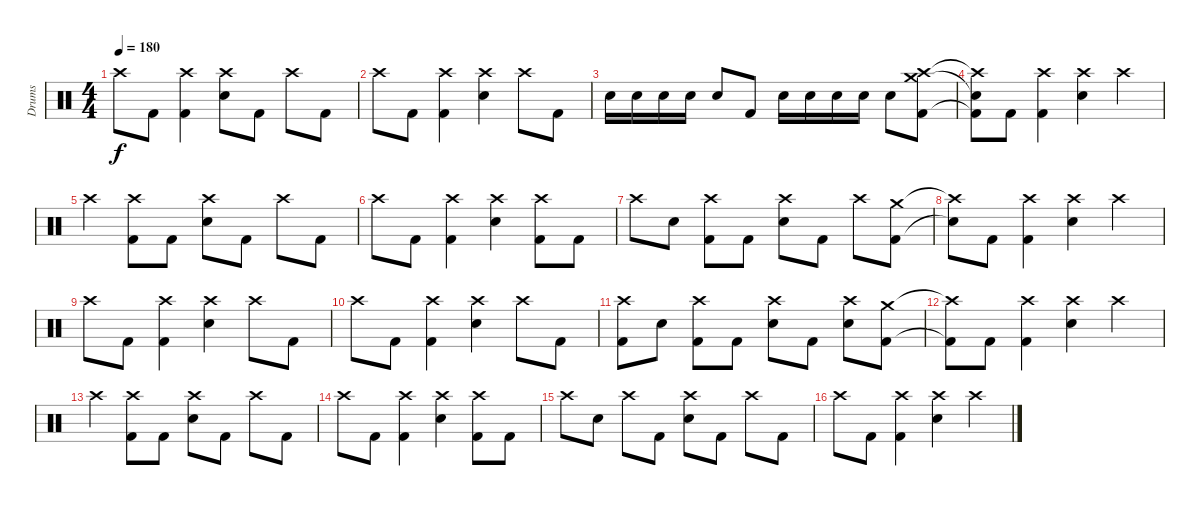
\track ("Drums" "Drums") {instrument percussion}
\staff {score}
\articulation defaults
\ts (4 4)
\tempo 180
\clef neutral
\ks c "Crash high (hit)".8{dy f} "Kick (hit) 2".8
("Crash high (hit)" "Kick (hit) 2").4 ("Crash high (hit)" "Electric Snare (hit)").8 "Kick (hit) 2".8 "Crash high (hit)".8 "Kick (hit) 2".8 |
"Crash high (hit)".8 "Kick (hit) 2".8 ("Crash high (hit)" "Kick (hit) 2").4 ("Crash high (hit)" "Electric Snare (hit)").4 "Crash high (hit)".8 "Kick (hit) 2".8 |
"Electric Snare (hit)".16 "Electric Snare (hit)".16 "Electric Snare (hit)".16 "Electric Snare (hit)".16 "Electric Snare (hit)".8 "Kick (hit) 2".8 "Electric Snare (hit)".16 "Electric Snare (hit)".16 "Electric Snare (hit)".16 "Electric Snare (hit)".16 "Electric Snare (hit)".8 ("Crash high (hit)" "Crash medium (hit)" "Kick (hit) 2").8 |
("Crash high (hit)"{t} "Snare (hit)"{t} "Kick (hit) 2"{t}).8 "Kick (hit) 2".8 ("Crash high (hit)" "Kick (hit) 2").4 ("Crash high (hit)" "Electric Snare (hit)").4 "Crash high (hit)".4 |
"Crash high (hit)".4 ("Crash high (hit)" "Kick (hit) 2").8 "Kick (hit) 2".8 ("Crash high (hit)" "Electric Snare (hit)").8 "Kick (hit) 2".8 "Crash high (hit)".8 "Kick (hit) 2".8 |
"Crash high (hit)".8 "Kick (hit) 2".8 ("Crash high (hit)" "Kick (hit) 2").4 ("Crash high (hit)" "Electric Snare (hit)").4 ("Crash high (hit)" "Kick (hit) 2").8 "Kick (hit) 2".8 |
"Crash high (hit)".8 "Electric Snare (hit)".8 ("Crash high (hit)" "Kick (hit) 2").8 "Kick (hit) 2".8 ("Crash high (hit)" "Electric Snare (hit)").8 "Kick (hit) 2".8 "Crash high (hit)".8 ("Crash medium (hit)" "Kick (hit) 2").8 |
("Crash high (hit)"{t} "Snare (hit)"{t}).8 "Kick (hit) 2".8 ("Crash high (hit)" "Kick (hit) 2").4 ("Crash high (hit)" "Electric Snare (hit)").4 "Crash high (hit)".4 |
"Crash high (hit)".8 "Kick (hit) 2".8 ("Crash high (hit)" "Kick (hit) 2").4 ("Crash high (hit)" "Electric Snare (hit)").4 "Crash high (hit)".8 "Kick (hit) 2".8 |
"Crash high (hit)".8 "Kick (hit) 2".8 ("Crash high (hit)" "Kick (hit) 2").4 ("Crash high (hit)" "Electric Snare (hit)").4 "Crash high (hit)".8 "Kick (hit) 2".8 |
("Crash high (hit)" "Kick (hit) 2").8 "Electric Snare (hit)".8 ("Crash high (hit)" "Kick (hit) 2").8 "Kick (hit) 2".8 ("Crash high (hit)" "Electric Snare (hit)").8 "Kick (hit) 2".8 ("Crash high (hit)" "Electric Snare (hit)").8 ("Crash medium (hit)" "Kick (hit) 2").8 |
("Crash high (hit)"{t} "Kick (hit) 2"{t}).8 "Kick (hit) 2".8 ("Crash high (hit)" "Kick (hit) 2").4 ("Crash high (hit)" "Electric Snare (hit)").4 "Crash high (hit)".4 |
"Crash high (hit)".4 ("Crash high (hit)" "Kick (hit) 2").8 "Kick (hit) 2".8 ("Crash high (hit)" "Electric Snare (hit)").8 "Kick (hit) 2".8 "Crash high (hit)".8 "Kick (hit) 2".8 |
"Crash high (hit)".8 "Kick (hit) 2".8 ("Crash high (hit)" "Kick (hit) 2").4 ("Crash high (hit)" "Electric Snare (hit)").4 ("Crash high (hit)" "Kick (hit) 2").8 "Kick (hit) 2".8 |
"Crash high (hit)".8 "Electric Snare (hit)".8 "Crash high (hit)".8 "Kick (hit) 2".8 ("Crash high (hit)" "Electric Snare (hit)").8 "Kick (hit) 2".8 "Crash high (hit)".8 "Kick (hit) 2".8 |
"Crash high (hit)".8 "Kick (hit) 2".8 ("Crash high (hit)" "Kick (hit) 2").4 ("Crash high (hit)" "Electric Snare (hit)").4 "Crash high (hit)".4
